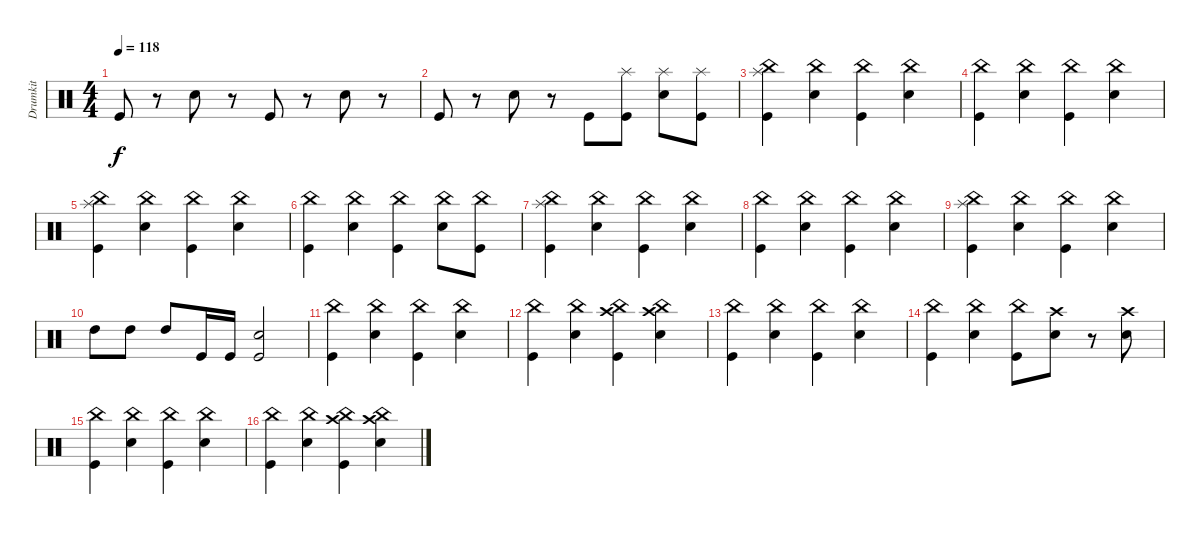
\track ("Drumkit" "Drumkit") {instrument percussion}
\staff {score}
\articulation defaults
\ts (4 4)
\tempo 118
\clef neutral
\ks c "Kick (hit)".8{dy f}
r.8 "Snare (hit) 2".8 r.8 "Kick (hit)".8 r.8 "Snare (hit) 2".8 r.8 |
"Kick (hit)".8 r.8 "Snare (hit) 2".8 r.8 "Kick (hit)".8 ("Kick (hit)" "Splash (hit)").8 ("Snare (hit) 2" "Splash (hit)").8 ("Kick (hit)" "Splash (hit)").8 |
("China (hit)" "Kick (hit)" "Splash (hit)").4 ("China (hit)" "Snare (hit) 2").4 ("China (hit)" "Kick (hit)").4 ("China (hit)" "Snare (hit) 2").4 |
("China (hit)" "Kick (hit)").4 ("China (hit)" "Snare (hit) 2").4 ("China (hit)" "Kick (hit)").4 ("China (hit)" "Snare (hit) 2").4 |
("China (hit)" "Kick (hit)" "Splash (hit)").4 ("China (hit)" "Snare (hit) 2").4 ("China (hit)" "Kick (hit)").4 ("China (hit)" "Snare (hit) 2").4 |
("China (hit)" "Kick (hit)").4 ("China (hit)" "Snare (hit) 2").4 ("China (hit)" "Kick (hit)").4 ("China (hit)" "Snare (hit) 2").8 ("China (hit)" "Kick (hit)").8 |
("China (hit)" "Kick (hit)" "Splash (hit)").4 ("China (hit)" "Snare (hit) 2").4 ("China (hit)" "Kick (hit)").4 ("China (hit)" "Snare (hit) 2").4 |
("China (hit)" "Kick (hit)").4 ("China (hit)" "Snare (hit) 2").4 ("China (hit)" "Kick (hit)").4 ("China (hit)" "Snare (hit) 2").4 |
("China (hit)" "Kick (hit)" "Splash (hit)").4 ("China (hit)" "Snare (hit) 2").4 ("China (hit)" "Kick (hit)").4 ("China (hit)" "Snare (hit) 2").4 |
"High Tom (hit)".8 "High Tom (hit)".8 "High Tom (hit)".8 "Kick (hit)".16 "Kick (hit)".16 ("Kick (hit)" "Snare (hit) 2").2 |
("China (hit)" "Kick (hit)").4 ("China (hit)" "Snare (hit) 2").4 ("China (hit)" "Kick (hit)").4 ("China (hit)" "Snare (hit) 2").4 |
("China (hit)" "Kick (hit)").4 ("China (hit)" "Snare (hit) 2").4 ("China (hit)" "Kick (hit)" "Crash high (hit)").4 ("China (hit)" "Snare (hit) 2" "Crash high (hit)").4 |
("China (hit)" "Kick (hit)").4 ("China (hit)" "Snare (hit) 2").4 ("China (hit)" "Kick (hit)").4 ("China (hit)" "Snare (hit) 2").4 |
("China (hit)" "Kick (hit)").4 ("China (hit)" "Snare (hit) 2").4 ("China (hit)" "Kick (hit)").8 ("Snare (hit) 2" "Crash high (hit)").8 r.8 ("Snare (hit) 2" "Crash high (hit)").8 |
("China (hit)" "Kick (hit)").4 ("China (hit)" "Snare (hit) 2").4 ("China (hit)" "Kick (hit)").4 ("China (hit)" "Snare (hit) 2").4 |
("China (hit)" "Kick (hit)").4 ("China (hit)" "Snare (hit) 2").4 ("China (hit)" "Kick (hit)" "Crash high (hit)").4 ("China (hit)" "Snare (hit) 2" "Crash high (hit)").4
